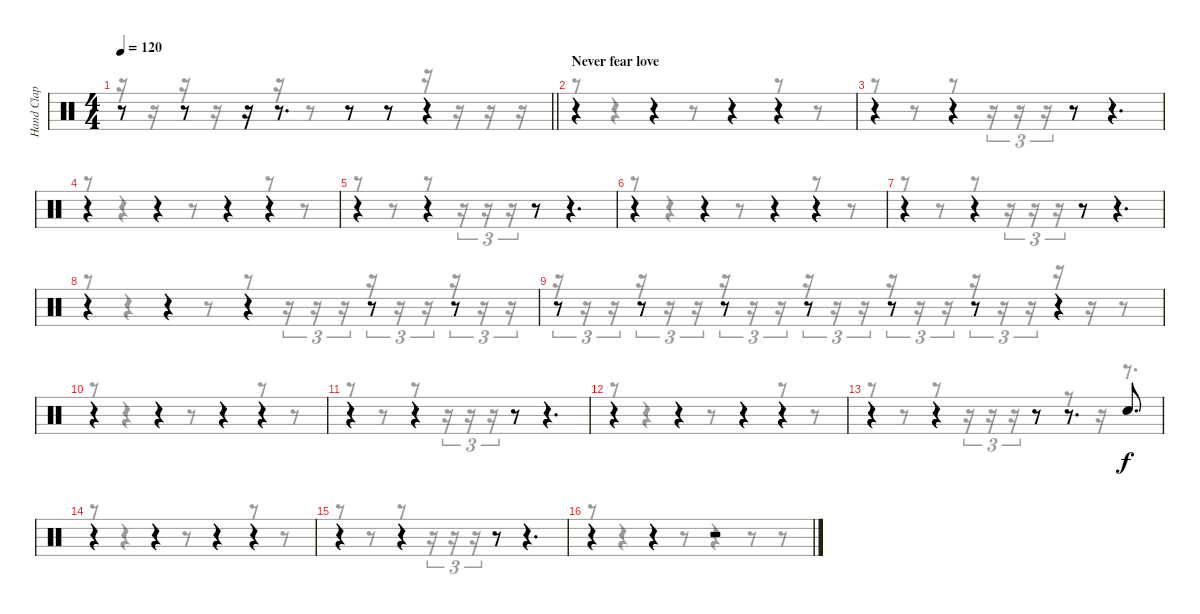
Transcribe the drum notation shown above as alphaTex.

\track ("Hand Clap" "Hand Clap") {instrument percussion}
\staff {score}
\articulation defaults
\voice
\ts (4 4)
\tempo 120
\clef neutral
\barLineRight lightlight
\ks c
r.8{dy f} r.8 r.16 r.8{d} r.8 r.8 r.4 |
\section ("" "Never fear love")
r.4 r.4 r.4 r.4 |
r.4 r.4 r.8 r.4{d} |
r.4 r.4 r.4 r.4 |
r.4 r.4 r.8 r.4{d} |
r.4 r.4 r.4 r.4 |
r.4 r.4 r.8 r.4{d} |
r.4 r.4 r.4 r.8 r.8 |
r.8 r.8 r.8 r.8 r.8 r.8 r.4 |
r.4 r.4 r.4 r.4 |
r.4 r.4 r.8 r.4{d} |
r.4 r.4 r.4 r.4 |
r.4 r.4 r.8 r.8{d} "Hand Clap (hit)".8{d} |
r.4 r.4 r.4 r.4 |
r.4 r.4 r.8 r.4{d} |
r.4 r.4 r.2
\voice
\clef neutral
\ottava regular
\simile none
\barLineRight lightlight
\ks c
r.16{dy f} r.16 r.16 r.16 r.16 r.16 r.8 r.8 r.8 r.16 r.16 r.16 r.16 |
r.8 r.4 r.8 r.4 r.8 r.8 |
r.8 r.8 r.8 r.16{tu (3 2)} r.16{tu (3 2)} r.16{tu (3 2)} r.8 r.4{d} |
r.8 r.4 r.8 r.4 r.8 r.8 |
r.8 r.8 r.8 r.16{tu (3 2)} r.16{tu (3 2)} r.16{tu (3 2)} r.8 r.4{d} |
r.8 r.4 r.8 r.4 r.8 r.8 |
r.8 r.8 r.8 r.16{tu (3 2)} r.16{tu (3 2)} r.16{tu (3 2)} r.8 r.4{d} |
r.8 r.4 r.8 r.8 r.16{tu (3 2)} r.16{tu (3 2)} r.16{tu (3 2)} r.16{tu (3 2)} r.16{tu (3 2)} r.16{tu (3 2)} r.16{tu (3 2)} r.16{tu (3 2)} r.16{tu (3 2)} |
r.16{tu (3 2)} r.16{tu (3 2)} r.16{tu (3 2)} r.16{tu (3 2)} r.16{tu (3 2)} r.16{tu (3 2)} r.16{tu (3 2)} r.16{tu (3 2)} r.16{tu (3 2)} r.16{tu (3 2)} r.16{tu (3 2)} r.16{tu (3 2)} r.16{tu (3 2)} r.16{tu (3 2)} r.16{tu (3 2)} r.16{tu (3 2)} r.16{tu (3 2)} r.16{tu (3 2)} r.16 r.16 r.8 |
r.8 r.4 r.8 r.4 r.8 r.8 |
r.8 r.8 r.8 r.16{tu (3 2)} r.16{tu (3 2)} r.16{tu (3 2)} r.8 r.4{d} |
r.8 r.4 r.8 r.4 r.8 r.8 |
r.8 r.8 r.8 r.16{tu (3 2)} r.16{tu (3 2)} r.16{tu (3 2)} r.8 r.8 r.16 r.8{d} |
r.8 r.4 r.8 r.4 r.8 r.8 |
r.8 r.8 r.8 r.16{tu (3 2)} r.16{tu (3 2)} r.16{tu (3 2)} r.8 r.4{d} |
r.8 r.4 r.8 r.4 r.8 r.8
